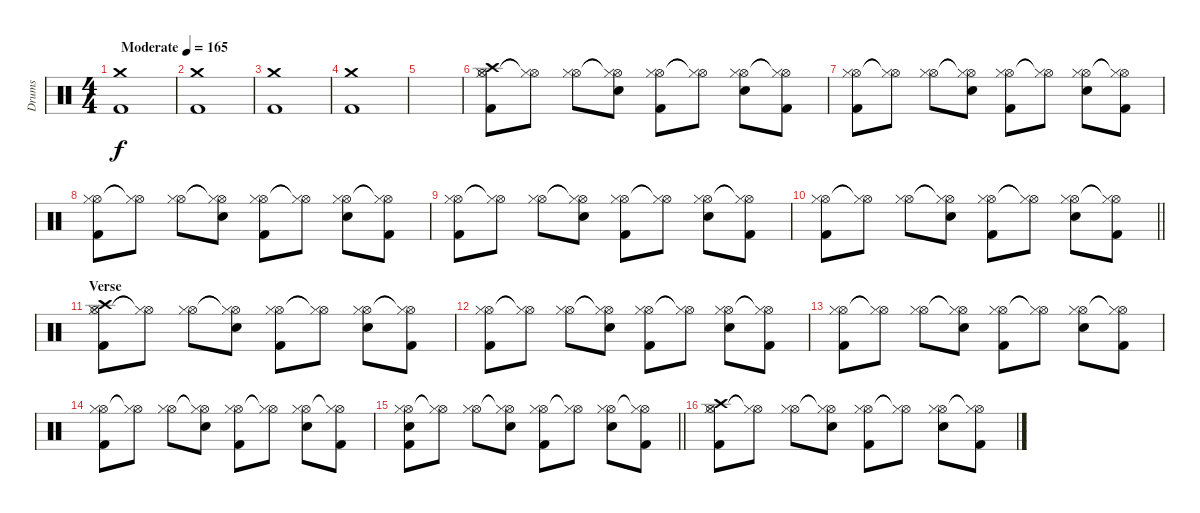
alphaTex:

\track ("Drums" "Drums") {instrument percussion}
\staff {score}
\articulation defaults
\ts (4 4)
\tempo (165 "Moderate")
\clef neutral
\ks c
("Crash medium (hit)" "Kick (hit) 2").1{dy f} |
("Crash medium (hit)" "Kick (hit) 2").1 |
("Crash medium (hit)" "Kick (hit) 2").1 |
("Crash medium (hit)" "Kick (hit) 2").1 |
|
("Hi-Hat (open)" "Hi-Hat (closed)" "Crash high (hit)" "Kick (hit) 2").8 ("Hi-Hat (open)"{t} "Hi-Hat (closed)"{t}).8 ("Hi-Hat (open)" "Hi-Hat (closed)").8 ("Hi-Hat (open)"{t} "Hi-Hat (closed)"{t} "Snare (hit) 2").8 ("Hi-Hat (open)" "Hi-Hat (closed)" "Kick (hit) 2").8 ("Hi-Hat (open)"{t} "Hi-Hat (closed)"{t}).8 ("Hi-Hat (open)" "Hi-Hat (closed)" "Snare (hit) 2").8 ("Hi-Hat (open)"{t} "Hi-Hat (closed)"{t} "Kick (hit) 2").8 |
("Hi-Hat (open)" "Hi-Hat (closed)" "Kick (hit) 2").8 ("Hi-Hat (open)"{t} "Hi-Hat (closed)"{t}).8 ("Hi-Hat (open)" "Hi-Hat (closed)").8 ("Hi-Hat (open)"{t} "Hi-Hat (closed)"{t} "Snare (hit) 2").8 ("Hi-Hat (open)" "Hi-Hat (closed)" "Kick (hit) 2").8 ("Hi-Hat (open)"{t} "Hi-Hat (closed)"{t}).8 ("Hi-Hat (open)" "Hi-Hat (closed)" "Snare (hit) 2").8 ("Hi-Hat (open)"{t} "Hi-Hat (closed)"{t} "Kick (hit) 2").8 |
("Hi-Hat (open)" "Hi-Hat (closed)" "Kick (hit) 2").8 ("Hi-Hat (open)"{t} "Hi-Hat (closed)"{t}).8 ("Hi-Hat (open)" "Hi-Hat (closed)").8 ("Hi-Hat (open)"{t} "Hi-Hat (closed)"{t} "Snare (hit) 2").8 ("Hi-Hat (open)" "Hi-Hat (closed)" "Kick (hit) 2").8 ("Hi-Hat (open)"{t} "Hi-Hat (closed)"{t}).8 ("Hi-Hat (open)" "Hi-Hat (closed)" "Snare (hit) 2").8 ("Hi-Hat (open)"{t} "Hi-Hat (closed)"{t} "Kick (hit) 2").8 |
("Hi-Hat (open)" "Hi-Hat (closed)" "Kick (hit) 2").8 ("Hi-Hat (open)"{t} "Hi-Hat (closed)"{t}).8 ("Hi-Hat (open)" "Hi-Hat (closed)").8 ("Hi-Hat (open)"{t} "Hi-Hat (closed)"{t} "Snare (hit) 2").8 ("Hi-Hat (open)" "Hi-Hat (closed)" "Kick (hit) 2").8 ("Hi-Hat (open)"{t} "Hi-Hat (closed)"{t}).8 ("Hi-Hat (open)" "Hi-Hat (closed)" "Snare (hit) 2").8 ("Hi-Hat (open)"{t} "Hi-Hat (closed)"{t} "Kick (hit) 2").8 |
\barLineRight lightlight
("Hi-Hat (open)" "Hi-Hat (closed)" "Kick (hit) 2").8 ("Hi-Hat (open)"{t} "Hi-Hat (closed)"{t}).8 ("Hi-Hat (open)" "Hi-Hat (closed)").8 ("Hi-Hat (open)"{t} "Hi-Hat (closed)"{t} "Snare (hit) 2").8 ("Hi-Hat (open)" "Hi-Hat (closed)" "Kick (hit) 2").8 ("Hi-Hat (open)"{t} "Hi-Hat (closed)"{t}).8 ("Hi-Hat (open)" "Hi-Hat (closed)" "Snare (hit) 2").8 ("Hi-Hat (open)"{t} "Hi-Hat (closed)"{t} "Kick (hit) 2").8 |
\section ("" "Verse")
("Hi-Hat (open)" "Hi-Hat (closed)" "Crash high (hit)" "Kick (hit) 2").8 ("Hi-Hat (open)"{t} "Hi-Hat (closed)"{t}).8 ("Hi-Hat (open)" "Hi-Hat (closed)").8 ("Hi-Hat (open)"{t} "Hi-Hat (closed)"{t} "Snare (hit) 2").8 ("Hi-Hat (open)" "Hi-Hat (closed)" "Kick (hit) 2").8 ("Hi-Hat (open)"{t} "Hi-Hat (closed)"{t}).8 ("Hi-Hat (open)" "Hi-Hat (closed)" "Snare (hit) 2").8 ("Hi-Hat (open)"{t} "Hi-Hat (closed)"{t} "Kick (hit) 2").8 |
("Hi-Hat (open)" "Hi-Hat (closed)" "Kick (hit) 2").8 ("Hi-Hat (open)"{t} "Hi-Hat (closed)"{t}).8 ("Hi-Hat (open)" "Hi-Hat (closed)").8 ("Hi-Hat (open)"{t} "Hi-Hat (closed)"{t} "Snare (hit) 2").8 ("Hi-Hat (open)" "Hi-Hat (closed)" "Kick (hit) 2").8 ("Hi-Hat (open)"{t} "Hi-Hat (closed)"{t}).8 ("Hi-Hat (open)" "Hi-Hat (closed)" "Snare (hit) 2").8 ("Hi-Hat (open)"{t} "Hi-Hat (closed)"{t} "Kick (hit) 2").8 |
("Hi-Hat (open)" "Hi-Hat (closed)" "Kick (hit) 2").8 ("Hi-Hat (open)"{t} "Hi-Hat (closed)"{t}).8 ("Hi-Hat (open)" "Hi-Hat (closed)").8 ("Hi-Hat (open)"{t} "Hi-Hat (closed)"{t} "Snare (hit) 2").8 ("Hi-Hat (open)" "Hi-Hat (closed)" "Kick (hit) 2").8 ("Hi-Hat (open)"{t} "Hi-Hat (closed)"{t}).8 ("Hi-Hat (open)" "Hi-Hat (closed)" "Snare (hit) 2").8 ("Hi-Hat (open)"{t} "Hi-Hat (closed)"{t} "Kick (hit) 2").8 |
("Hi-Hat (open)" "Hi-Hat (closed)" "Kick (hit) 2").8 ("Hi-Hat (open)"{t} "Hi-Hat (closed)"{t}).8 ("Hi-Hat (open)" "Hi-Hat (closed)").8 ("Hi-Hat (open)"{t} "Hi-Hat (closed)"{t} "Snare (hit) 2").8 ("Hi-Hat (open)" "Hi-Hat (closed)" "Kick (hit) 2").8 ("Hi-Hat (open)"{t} "Hi-Hat (closed)"{t}).8 ("Hi-Hat (open)" "Hi-Hat (closed)" "Snare (hit) 2").8 ("Hi-Hat (open)"{t} "Hi-Hat (closed)"{t} "Kick (hit) 2").8 |
\barLineRight lightlight
("Hi-Hat (open)" "Hi-Hat (closed)" "Snare (hit) 2" "Kick (hit) 2").8 ("Hi-Hat (open)"{t} "Hi-Hat (closed)"{t}).8 ("Hi-Hat (open)" "Hi-Hat (closed)").8 ("Hi-Hat (open)"{t} "Hi-Hat (closed)"{t} "Snare (hit) 2").8 ("Hi-Hat (open)" "Hi-Hat (closed)" "Kick (hit) 2").8 ("Hi-Hat (open)"{t} "Hi-Hat (closed)"{t}).8 ("Hi-Hat (open)" "Hi-Hat (closed)" "Snare (hit) 2").8 ("Hi-Hat (open)"{t} "Hi-Hat (closed)"{t} "Kick (hit) 2").8 |
("Hi-Hat (open)" "Hi-Hat (closed)" "Crash high (hit)" "Kick (hit) 2").8 ("Hi-Hat (open)"{t} "Hi-Hat (closed)"{t}).8 ("Hi-Hat (open)" "Hi-Hat (closed)").8 ("Hi-Hat (open)"{t} "Hi-Hat (closed)"{t} "Snare (hit) 2").8 ("Hi-Hat (open)" "Hi-Hat (closed)" "Kick (hit) 2").8 ("Hi-Hat (open)"{t} "Hi-Hat (closed)"{t}).8 ("Hi-Hat (open)" "Hi-Hat (closed)" "Snare (hit) 2").8 ("Hi-Hat (open)"{t} "Hi-Hat (closed)"{t} "Kick (hit) 2").8
